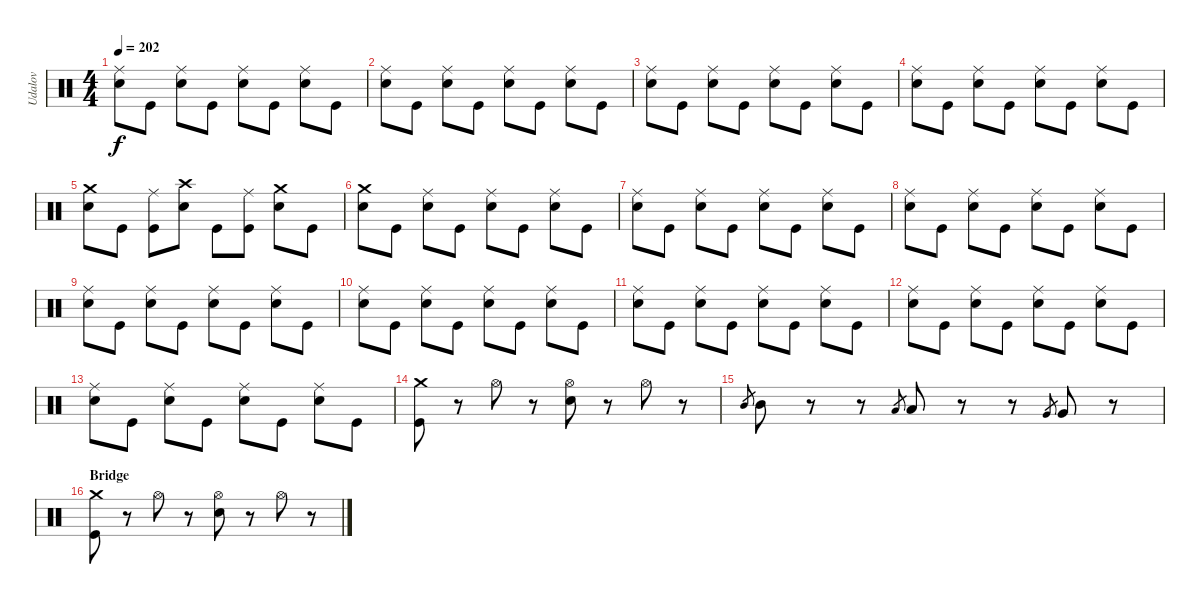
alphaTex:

\track ("Udalov" "Udalov") {instrument percussion}
\staff {score}
\articulation defaults
\ts (4 4)
\tempo 202
\clef neutral
\ks c
("Electric Snare (hit)" "Ride (middle)").8{dy f} "Kick (hit)".8 ("Electric Snare (hit)" "Ride (middle)").8 "Kick (hit)".8 ("Electric Snare (hit)" "Ride (middle)").8 "Kick (hit)".8 ("Electric Snare (hit)" "Ride (middle)").8 "Kick (hit)".8 |
("Electric Snare (hit)" "Ride (middle)").8 "Kick (hit)".8 ("Electric Snare (hit)" "Ride (middle)").8 "Kick (hit)".8 ("Electric Snare (hit)" "Ride (middle)").8 "Kick (hit)".8 ("Electric Snare (hit)" "Ride (middle)").8 "Kick (hit)".8 |
("Electric Snare (hit)" "Ride (middle)").8 "Kick (hit)".8 ("Electric Snare (hit)" "Ride (middle)").8 "Kick (hit)".8 ("Electric Snare (hit)" "Ride (middle)").8 "Kick (hit)".8 ("Electric Snare (hit)" "Ride (middle)").8 "Kick (hit)".8 |
("Electric Snare (hit)" "Ride (middle)").8 "Kick (hit)".8 ("Electric Snare (hit)" "Ride (middle)").8 "Kick (hit)".8 ("Electric Snare (hit)" "Ride (middle)").8 "Kick (hit)".8 ("Electric Snare (hit)" "Ride (middle)").8 "Kick (hit)".8 |
("Electric Snare (hit)" "Crash medium (hit)").8 "Kick (hit)".8 ("Kick (hit)" "Ride (middle)").8 ("Electric Snare (hit)" "Crash high (hit)").8 "Kick (hit)".8 ("Kick (hit)" "Ride (middle)").8 ("Electric Snare (hit)" "Crash medium (hit)").8 "Kick (hit)".8 |
("Electric Snare (hit)" "Crash medium (hit)").8 "Kick (hit)".8 ("Electric Snare (hit)" "Ride (middle)").8 "Kick (hit)".8 ("Electric Snare (hit)" "Ride (middle)").8 "Kick (hit)".8 ("Electric Snare (hit)" "Ride (middle)").8 "Kick (hit)".8 |
("Electric Snare (hit)" "Ride (middle)").8 "Kick (hit)".8 ("Electric Snare (hit)" "Ride (middle)").8 "Kick (hit)".8 ("Electric Snare (hit)" "Ride (middle)").8 "Kick (hit)".8 ("Electric Snare (hit)" "Ride (middle)").8 "Kick (hit)".8 |
("Electric Snare (hit)" "Ride (middle)").8 "Kick (hit)".8 ("Electric Snare (hit)" "Ride (middle)").8 "Kick (hit)".8 ("Electric Snare (hit)" "Ride (middle)").8 "Kick (hit)".8 ("Electric Snare (hit)" "Ride (middle)").8 "Kick (hit)".8 |
("Electric Snare (hit)" "Ride (middle)").8 "Kick (hit)".8 ("Electric Snare (hit)" "Ride (middle)").8 "Kick (hit)".8 ("Electric Snare (hit)" "Ride (middle)").8 "Kick (hit)".8 ("Electric Snare (hit)" "Ride (middle)").8 "Kick (hit)".8 |
("Electric Snare (hit)" "Ride (middle)").8 "Kick (hit)".8 ("Electric Snare (hit)" "Ride (middle)").8 "Kick (hit)".8 ("Electric Snare (hit)" "Ride (middle)").8 "Kick (hit)".8 ("Electric Snare (hit)" "Ride (middle)").8 "Kick (hit)".8 |
("Electric Snare (hit)" "Ride (middle)").8 "Kick (hit)".8 ("Electric Snare (hit)" "Ride (middle)").8 "Kick (hit)".8 ("Electric Snare (hit)" "Ride (middle)").8 "Kick (hit)".8 ("Electric Snare (hit)" "Ride (middle)").8 "Kick (hit)".8 |
("Electric Snare (hit)" "Ride (middle)").8 "Kick (hit)".8 ("Electric Snare (hit)" "Ride (middle)").8 "Kick (hit)".8 ("Electric Snare (hit)" "Ride (middle)").8 "Kick (hit)".8 ("Electric Snare (hit)" "Ride (middle)").8 "Kick (hit)".8 |
("Electric Snare (hit)" "Ride (middle)").8 "Kick (hit)".8 ("Electric Snare (hit)" "Ride (middle)").8 "Kick (hit)".8 ("Electric Snare (hit)" "Ride (middle)").8 "Kick (hit)".8 ("Electric Snare (hit)" "Ride (middle)").8 "Kick (hit)".8 |
("Kick (hit)" "Crash medium (hit)").8 r.8 "Hi-Hat (open)".8 r.8 ("Electric Snare (hit)" "Hi-Hat (open)").8 r.8 "Hi-Hat (open)".8 r.8 |
"Mid Tom (hit)".8{gr} "Mid Tom (hit)".8 r.8 r.8 "Low Tom (hit)".8{gr} "Low Tom (hit)".8 r.8 r.8 "Very Low Tom (hit)".8{gr} "Very Low Tom (hit)".8 r.8 |
\section ("" "Bridge")
("Kick (hit)" "Crash medium (hit)").8 r.8 "Hi-Hat (open)".8 r.8 ("Electric Snare (hit)" "Hi-Hat (open)").8 r.8 "Hi-Hat (open)".8 r.8
